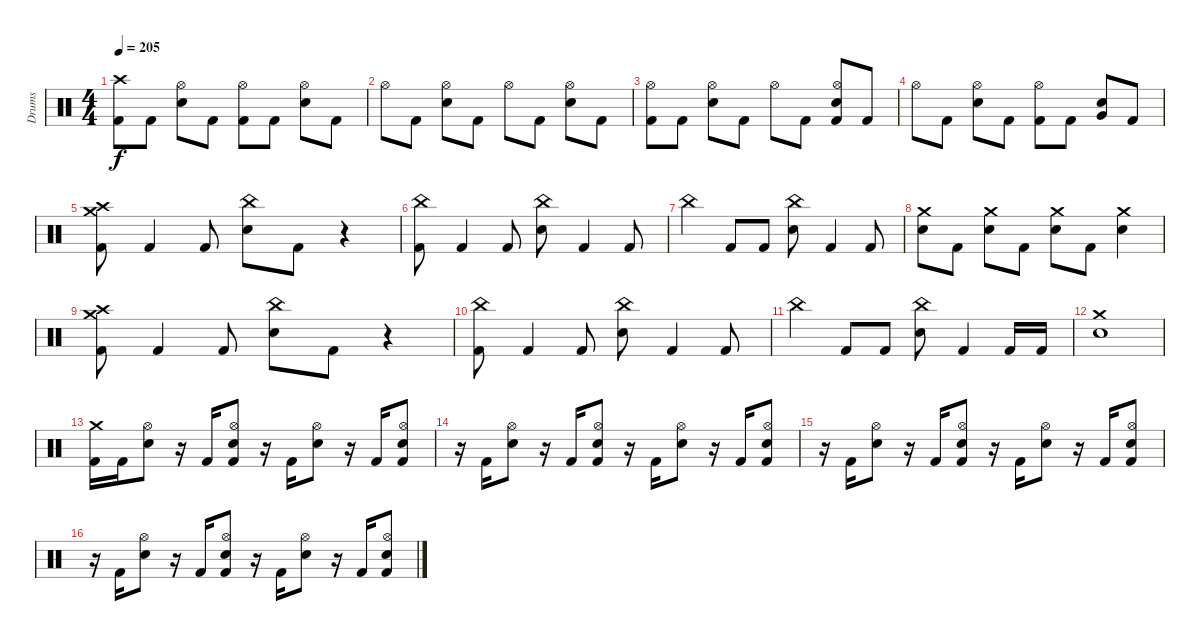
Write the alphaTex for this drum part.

\track ("Drums" "Drums") {instrument percussion}
\staff {score}
\articulation defaults
\ts (4 4)
\tempo 205
\clef neutral
\ks c
("Crash high (hit)" "Kick (hit) 2").8{dy f} "Kick (hit) 2".8 ("Hi-Hat (open)" "Electric Snare (hit)").8 "Kick (hit) 2".8 ("Hi-Hat (open)" "Kick (hit) 2").8 "Kick (hit) 2".8 ("Hi-Hat (open)" "Electric Snare (hit)").8 "Kick (hit) 2".8 |
"Hi-Hat (open)".8 "Kick (hit) 2".8 ("Hi-Hat (open)" "Electric Snare (hit)").8 "Kick (hit) 2".8 "Hi-Hat (open)".8 "Kick (hit) 2".8 ("Hi-Hat (open)" "Electric Snare (hit)").8 "Kick (hit) 2".8 |
("Hi-Hat (open)" "Kick (hit) 2").8 "Kick (hit) 2".8 ("Hi-Hat (open)" "Electric Snare (hit)").8 "Kick (hit) 2".8 "Hi-Hat (open)".8 "Kick (hit) 2".8 ("Hi-Hat (open)" "Electric Snare (hit)" "Kick (hit) 2").8 "Kick (hit) 2".8 |
"Hi-Hat (open)".8 "Kick (hit) 2".8 ("Hi-Hat (open)" "Electric Snare (hit)").8 "Kick (hit) 2".8 ("Hi-Hat (open)" "Kick (hit) 2").8 "Kick (hit) 2".8 ("Electric Snare (hit)" "Very Low Tom (hit)").8 "Kick (hit) 2".8 |
("Crash medium (hit)" "Crash high (hit)" "Kick (hit) 2").8 "Kick (hit) 2".4 "Kick (hit) 2".8 ("China (hit)" "Electric Snare (hit)").8 "Kick (hit) 2".8 r.4 |
("China (hit)" "Kick (hit) 2").8 "Kick (hit) 2".4 "Kick (hit) 2".8 ("China (hit)" "Electric Snare (hit)").8 "Kick (hit) 2".4 "Kick (hit) 2".8 |
"China (hit)".4 "Kick (hit) 2".8 "Kick (hit) 2".8 ("China (hit)" "Electric Snare (hit)").8 "Kick (hit) 2".4 "Kick (hit) 2".8 |
("Crash medium (hit)" "Electric Snare (hit)").8 "Kick (hit) 2".8 ("Crash medium (hit)" "Electric Snare (hit)").8 "Kick (hit) 2".8 ("Crash medium (hit)" "Electric Snare (hit)").8 "Kick (hit) 2".8 ("Crash medium (hit)" "Electric Snare (hit)").4 |
("Crash medium (hit)" "Crash high (hit)" "Kick (hit) 2").8 "Kick (hit) 2".4 "Kick (hit) 2".8 ("China (hit)" "Electric Snare (hit)").8 "Kick (hit) 2".8 r.4 |
("China (hit)" "Kick (hit) 2").8 "Kick (hit) 2".4 "Kick (hit) 2".8 ("China (hit)" "Electric Snare (hit)").8 "Kick (hit) 2".4 "Kick (hit) 2".8 |
"China (hit)".4 "Kick (hit) 2".8 "Kick (hit) 2".8 ("China (hit)" "Electric Snare (hit)").8 "Kick (hit) 2".4 "Kick (hit) 2".16 "Kick (hit) 2".16 |
("Crash medium (hit)" "Electric Snare (hit)").1 |
("Crash medium (hit)" "Kick (hit) 2").16 "Kick (hit) 2".16 ("Hi-Hat (open)" "Electric Snare (hit)").8 r.16 "Kick (hit) 2".16 ("Hi-Hat (open)" "Electric Snare (hit)" "Kick (hit) 2").8 r.16 "Kick (hit) 2".16 ("Hi-Hat (open)" "Electric Snare (hit)").8 r.16 "Kick (hit) 2".16 ("Hi-Hat (open)" "Electric Snare (hit)" "Kick (hit) 2").8 |
r.16 "Kick (hit) 2".16 ("Hi-Hat (open)" "Electric Snare (hit)").8 r.16 "Kick (hit) 2".16 ("Hi-Hat (open)" "Electric Snare (hit)" "Kick (hit) 2").8 r.16 "Kick (hit) 2".16 ("Hi-Hat (open)" "Electric Snare (hit)").8 r.16 "Kick (hit) 2".16 ("Hi-Hat (open)" "Electric Snare (hit)" "Kick (hit) 2").8 |
r.16 "Kick (hit) 2".16 ("Hi-Hat (open)" "Electric Snare (hit)").8 r.16 "Kick (hit) 2".16 ("Hi-Hat (open)" "Electric Snare (hit)" "Kick (hit) 2").8 r.16 "Kick (hit) 2".16 ("Hi-Hat (open)" "Electric Snare (hit)").8 r.16 "Kick (hit) 2".16 ("Hi-Hat (open)" "Electric Snare (hit)" "Kick (hit) 2").8 |
r.16 "Kick (hit) 2".16 ("Hi-Hat (open)" "Electric Snare (hit)").8 r.16 "Kick (hit) 2".16 ("Hi-Hat (open)" "Electric Snare (hit)" "Kick (hit) 2").8 r.16 "Kick (hit) 2".16 ("Hi-Hat (open)" "Electric Snare (hit)").8 r.16 "Kick (hit) 2".16 ("Hi-Hat (open)" "Electric Snare (hit)" "Kick (hit) 2").8
